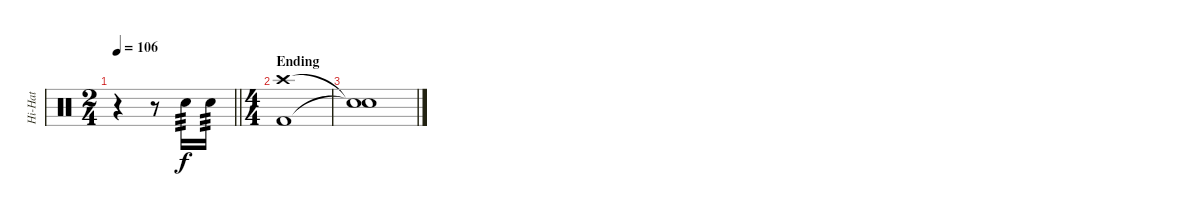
\track ("Hi-Hat" "Hi-Hat") {instrument percussion}
\staff {score}
\articulation defaults
\ts (2 4)
\tempo 106
\clef neutral
\barLineRight lightlight
\ks c
r.4{dy ff volume 12} r.8 "Electric Snare (hit)".16{tp 3 dy f} "Electric Snare (hit)".16{tp 3} |
\ts (4 4)
\section ("" "Ending")
("Crash high (hit)" "Kick (hit) 2").1 |
("Snare (hit)"{t} "Snare (hit)"{t}).1
